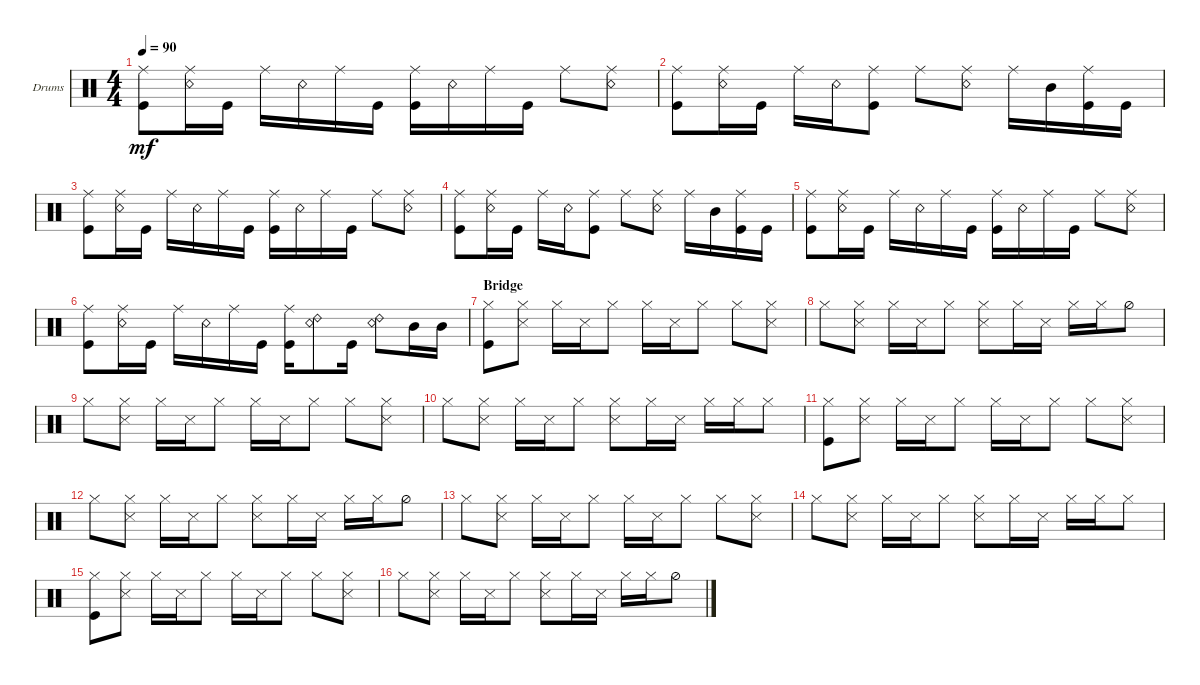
\defaultSystemsLayout 4
\bracketExtendMode groupsimilarinstruments
\firstSystemTrackNameOrientation horizontal
\otherSystemsTrackNameOrientation horizontal
\track ("Drumkit" "Drums") {instrument percussion}
\staff {score}
\articulation defaults
\ts (4 4)
\tempo 90
\clef neutral
\ks c
("Kick (hit)" "Ride (middle)").8{dy mf} ("Ride (middle)" "Snare (rim shot)").16 "Kick (hit)".16 "Ride (middle)".16 "Snare (rim shot)".16 "Ride (middle)".16 "Kick (hit)".16 ("Kick (hit)" "Ride (middle)").16 "Snare (rim shot)".16 "Ride (middle)".16 "Kick (hit)".16 "Ride (middle)".8 ("Snare (rim shot)" "Ride (middle)").8 |
("Ride (middle)" "Kick (hit)").8 ("Ride (middle)" "Snare (rim shot)").16 "Kick (hit)".16 "Ride (middle)".16 "Snare (rim shot)".16 ("Ride (middle)" "Kick (hit)").8 "Ride (middle)".8 ("Ride (middle)" "Snare (rim shot)").8 "Ride (middle)".16 "Mid Tom (hit)".16 ("Kick (hit)" "Ride (middle)").16 "Kick (hit)".16 |
("Kick (hit)" "Ride (middle)").8 ("Ride (middle)" "Snare (rim shot)").16 "Kick (hit)".16 "Ride (middle)".16 "Snare (rim shot)".16 "Ride (middle)".16 "Kick (hit)".16 ("Kick (hit)" "Ride (middle)").16 "Snare (rim shot)".16 "Ride (middle)".16 "Kick (hit)".16 "Ride (middle)".8 ("Snare (rim shot)" "Ride (middle)").8 |
("Ride (middle)" "Kick (hit)").8 ("Ride (middle)" "Snare (rim shot)").16 "Kick (hit)".16 "Ride (middle)".16 "Snare (rim shot)".16 ("Ride (middle)" "Kick (hit)").8 "Ride (middle)".8 ("Ride (middle)" "Snare (rim shot)").8 "Ride (middle)".16 "Mid Tom (hit)".16 ("Kick (hit)" "Ride (middle)").16 "Kick (hit)".16 |
("Kick (hit)" "Ride (middle)").8 ("Ride (middle)" "Snare (rim shot)").16 "Kick (hit)".16 "Ride (middle)".16 "Snare (rim shot)".16 "Ride (middle)".16 "Kick (hit)".16 ("Kick (hit)" "Ride (middle)").16 "Snare (rim shot)".16 "Ride (middle)".16 "Kick (hit)".16 "Ride (middle)".8 ("Snare (rim shot)" "Ride (middle)").8 |
("Ride (middle)" "Kick (hit)").8 ("Ride (middle)" "Snare (rim shot)").16 "Kick (hit)".16 "Ride (middle)".16 "Snare (rim shot)".16 "Ride (middle)".16 "Kick (hit)".16 ("Ride (middle)" "Kick (hit)").16 ("Snare (rim shot)" "Ride (bell) 2").8 "Kick (hit)".16 ("Ride (bell) 2" "Snare (rim shot)").8 "Mid Tom (hit)".16 "Mid Tom (hit)".16 |
\section ("" "Bridge")
("Hi-Hat (closed)" "Kick (hit)").8 ("Hi-Hat (closed)" "Snare (side stick) 3").8 "Hi-Hat (closed)".16 "Snare (side stick) 3".16 "Hi-Hat (closed)".8 "Hi-Hat (closed)".16 "Snare (side stick) 3".16 "Hi-Hat (closed)".8 "Hi-Hat (closed)".8 ("Hi-Hat (closed)" "Snare (side stick) 3").8 |
"Hi-Hat (closed)".8 ("Hi-Hat (closed)" "Snare (side stick) 3").8 "Hi-Hat (closed)".16 "Snare (side stick) 3".16 "Hi-Hat (closed)".8 ("Hi-Hat (closed)" "Snare (side stick) 3").8 "Hi-Hat (closed)".16 "Snare (side stick) 3".16 "Hi-Hat (closed)".16 "Hi-Hat (closed)".16 "Hi-Hat (half)".8 |
"Hi-Hat (closed)".8 ("Hi-Hat (closed)" "Snare (side stick) 3").8 "Hi-Hat (closed)".16 "Snare (side stick) 3".16 "Hi-Hat (closed)".8 "Hi-Hat (closed)".16 "Snare (side stick) 3".16 "Hi-Hat (closed)".8 "Hi-Hat (closed)".8 ("Hi-Hat (closed)" "Snare (side stick) 3").8 |
"Hi-Hat (closed)".8 ("Hi-Hat (closed)" "Snare (side stick) 3").8 "Hi-Hat (closed)".16 "Snare (side stick) 3".16 "Hi-Hat (closed)".8 ("Hi-Hat (closed)" "Snare (side stick) 3").8 "Hi-Hat (closed)".16 "Snare (side stick) 3".16 "Hi-Hat (closed)".16 "Hi-Hat (closed)".16 "Hi-Hat (closed)".8 |
("Hi-Hat (closed)" "Kick (hit)").8 ("Hi-Hat (closed)" "Snare (side stick) 3").8 "Hi-Hat (closed)".16 "Snare (side stick) 3".16 "Hi-Hat (closed)".8 "Hi-Hat (closed)".16 "Snare (side stick) 3".16 "Hi-Hat (closed)".8 "Hi-Hat (closed)".8 ("Hi-Hat (closed)" "Snare (side stick) 3").8 |
"Hi-Hat (closed)".8 ("Hi-Hat (closed)" "Snare (side stick) 3").8 "Hi-Hat (closed)".16 "Snare (side stick) 3".16 "Hi-Hat (closed)".8 ("Hi-Hat (closed)" "Snare (side stick) 3").8 "Hi-Hat (closed)".16 "Snare (side stick) 3".16 "Hi-Hat (closed)".16 "Hi-Hat (closed)".16 "Hi-Hat (half)".8 |
"Hi-Hat (closed)".8 ("Hi-Hat (closed)" "Snare (side stick) 3").8 "Hi-Hat (closed)".16 "Snare (side stick) 3".16 "Hi-Hat (closed)".8 "Hi-Hat (closed)".16 "Snare (side stick) 3".16 "Hi-Hat (closed)".8 "Hi-Hat (closed)".8 ("Hi-Hat (closed)" "Snare (side stick) 3").8 |
"Hi-Hat (closed)".8 ("Hi-Hat (closed)" "Snare (side stick) 3").8 "Hi-Hat (closed)".16 "Snare (side stick) 3".16 "Hi-Hat (closed)".8 ("Hi-Hat (closed)" "Snare (side stick) 3").8 "Hi-Hat (closed)".16 "Snare (side stick) 3".16 "Hi-Hat (closed)".16 "Hi-Hat (closed)".16 "Hi-Hat (closed)".8 |
("Hi-Hat (closed)" "Kick (hit)").8 ("Hi-Hat (closed)" "Snare (side stick) 3").8 "Hi-Hat (closed)".16 "Snare (side stick) 3".16 "Hi-Hat (closed)".8 "Hi-Hat (closed)".16 "Snare (side stick) 3".16 "Hi-Hat (closed)".8 "Hi-Hat (closed)".8 ("Hi-Hat (closed)" "Snare (side stick) 3").8 |
"Hi-Hat (closed)".8 ("Hi-Hat (closed)" "Snare (side stick) 3").8 "Hi-Hat (closed)".16 "Snare (side stick) 3".16 "Hi-Hat (closed)".8 ("Hi-Hat (closed)" "Snare (side stick) 3").8 "Hi-Hat (closed)".16 "Snare (side stick) 3".16 "Hi-Hat (closed)".16 "Hi-Hat (closed)".16 "Hi-Hat (half)".8
